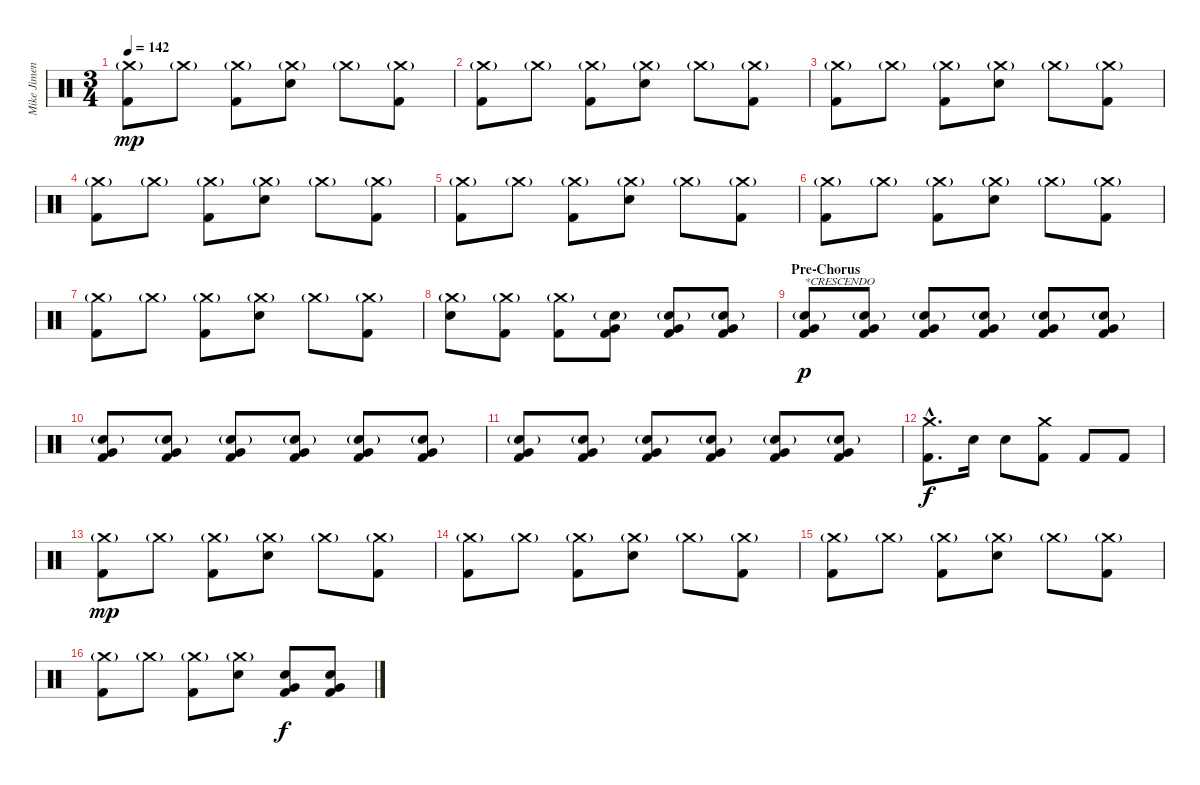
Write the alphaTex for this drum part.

\track ("Mike Jimenez" "Mike Jimen") {instrument percussion}
\staff {score}
\articulation defaults
\ts (3 4)
\tempo 142
\clef neutral
\ks c
("Crash medium (hit)"{g} "Kick (hit) 2").8{dy mp} "Crash medium (hit)"{g}.8 ("Crash medium (hit)"{g} "Kick (hit) 2").8 ("Crash medium (hit)"{g} "Electric Snare (hit)").8 "Crash medium (hit)"{g}.8 ("Crash medium (hit)"{g} "Kick (hit) 2").8 |
("Crash medium (hit)"{g} "Kick (hit) 2").8 "Crash medium (hit)"{g}.8 ("Crash medium (hit)"{g} "Kick (hit) 2").8 ("Crash medium (hit)"{g} "Electric Snare (hit)").8 "Crash medium (hit)"{g}.8 ("Crash medium (hit)"{g} "Kick (hit) 2").8 |
("Crash medium (hit)"{g} "Kick (hit) 2").8 "Crash medium (hit)"{g}.8 ("Crash medium (hit)"{g} "Kick (hit) 2").8 ("Crash medium (hit)"{g} "Electric Snare (hit)").8 "Crash medium (hit)"{g}.8 ("Crash medium (hit)"{g} "Kick (hit) 2").8 |
("Crash medium (hit)"{g} "Kick (hit) 2").8 "Crash medium (hit)"{g}.8 ("Crash medium (hit)"{g} "Kick (hit) 2").8 ("Crash medium (hit)"{g} "Electric Snare (hit)").8 "Crash medium (hit)"{g}.8 ("Crash medium (hit)"{g} "Kick (hit) 2").8 |
("Crash medium (hit)"{g} "Kick (hit) 2").8 "Crash medium (hit)"{g}.8 ("Crash medium (hit)"{g} "Kick (hit) 2").8 ("Crash medium (hit)"{g} "Electric Snare (hit)").8 "Crash medium (hit)"{g}.8 ("Crash medium (hit)"{g} "Kick (hit) 2").8 |
("Crash medium (hit)"{g} "Kick (hit) 2").8 "Crash medium (hit)"{g}.8 ("Crash medium (hit)"{g} "Kick (hit) 2").8 ("Crash medium (hit)"{g} "Electric Snare (hit)").8 "Crash medium (hit)"{g}.8 ("Crash medium (hit)"{g} "Kick (hit) 2").8 |
("Crash medium (hit)"{g} "Kick (hit) 2").8 "Crash medium (hit)"{g}.8 ("Crash medium (hit)"{g} "Kick (hit) 2").8 ("Crash medium (hit)"{g} "Electric Snare (hit)").8 "Crash medium (hit)"{g}.8 ("Crash medium (hit)"{g} "Kick (hit) 2").8 |
("Crash medium (hit)"{g} "Electric Snare (hit)").8 ("Crash medium (hit)"{g} "Kick (hit) 2").8 ("Crash medium (hit)"{g} "Kick (hit) 2").8 ("Electric Snare (hit)"{g} "Very Low Tom (hit)" "Kick (hit) 2").8 ("Electric Snare (hit)"{g} "Very Low Tom (hit)" "Kick (hit) 2").8 ("Electric Snare (hit)"{g} "Very Low Tom (hit)" "Kick (hit) 2").8 |
\section ("" "Pre-Chorus")
("Electric Snare (hit)"{g} "Very Low Tom (hit)" "Kick (hit) 2").8{txt "*CRESCENDO" dy p volume 16} ("Electric Snare (hit)"{g} "Very Low Tom (hit)" "Kick (hit) 2").8 ("Electric Snare (hit)"{g} "Very Low Tom (hit)" "Kick (hit) 2").8 ("Electric Snare (hit)"{g} "Very Low Tom (hit)" "Kick (hit) 2").8 ("Electric Snare (hit)"{g} "Very Low Tom (hit)" "Kick (hit) 2").8 ("Electric Snare (hit)"{g} "Very Low Tom (hit)" "Kick (hit) 2").8 |
("Electric Snare (hit)"{g} "Very Low Tom (hit)" "Kick (hit) 2").8 ("Electric Snare (hit)"{g} "Very Low Tom (hit)" "Kick (hit) 2").8 ("Electric Snare (hit)"{g} "Very Low Tom (hit)" "Kick (hit) 2").8 ("Electric Snare (hit)"{g} "Very Low Tom (hit)" "Kick (hit) 2").8 ("Electric Snare (hit)"{g} "Very Low Tom (hit)" "Kick (hit) 2").8 ("Electric Snare (hit)"{g} "Very Low Tom (hit)" "Kick (hit) 2").8 |
("Electric Snare (hit)"{g} "Very Low Tom (hit)" "Kick (hit) 2").8 ("Electric Snare (hit)"{g} "Very Low Tom (hit)" "Kick (hit) 2").8 ("Electric Snare (hit)"{g} "Very Low Tom (hit)" "Kick (hit) 2").8 ("Electric Snare (hit)"{g} "Very Low Tom (hit)" "Kick (hit) 2").8 ("Electric Snare (hit)"{g} "Very Low Tom (hit)" "Kick (hit) 2").8 ("Electric Snare (hit)"{g} "Very Low Tom (hit)" "Kick (hit) 2").8 |
("Crash medium (hit)"{hac} "Kick (hit) 2"{hac}).8{d dy f} "Electric Snare (hit)".16 "Electric Snare (hit)".8 ("Crash medium (hit)" "Kick (hit) 2").8 "Kick (hit) 2".8 "Kick (hit) 2".8 |
("Crash medium (hit)"{g} "Kick (hit) 2").8{dy mp} "Crash medium (hit)"{g}.8 ("Crash medium (hit)"{g} "Kick (hit) 2").8 ("Crash medium (hit)"{g} "Electric Snare (hit)").8 "Crash medium (hit)"{g}.8 ("Crash medium (hit)"{g} "Kick (hit) 2").8 |
("Crash medium (hit)"{g} "Kick (hit) 2").8 "Crash medium (hit)"{g}.8 ("Crash medium (hit)"{g} "Kick (hit) 2").8 ("Crash medium (hit)"{g} "Electric Snare (hit)").8 "Crash medium (hit)"{g}.8 ("Crash medium (hit)"{g} "Kick (hit) 2").8 |
("Crash medium (hit)"{g} "Kick (hit) 2").8 "Crash medium (hit)"{g}.8 ("Crash medium (hit)"{g} "Kick (hit) 2").8 ("Crash medium (hit)"{g} "Electric Snare (hit)").8 "Crash medium (hit)"{g}.8 ("Crash medium (hit)"{g} "Kick (hit) 2").8 |
("Crash medium (hit)"{g} "Kick (hit) 2").8 "Crash medium (hit)"{g}.8 ("Crash medium (hit)"{g} "Kick (hit) 2").8 ("Crash medium (hit)"{g} "Electric Snare (hit)").8 ("Electric Snare (hit)" "Very Low Tom (hit)" "Kick (hit) 2").8{dy f} ("Electric Snare (hit)" "Very Low Tom (hit)" "Kick (hit) 2").8
